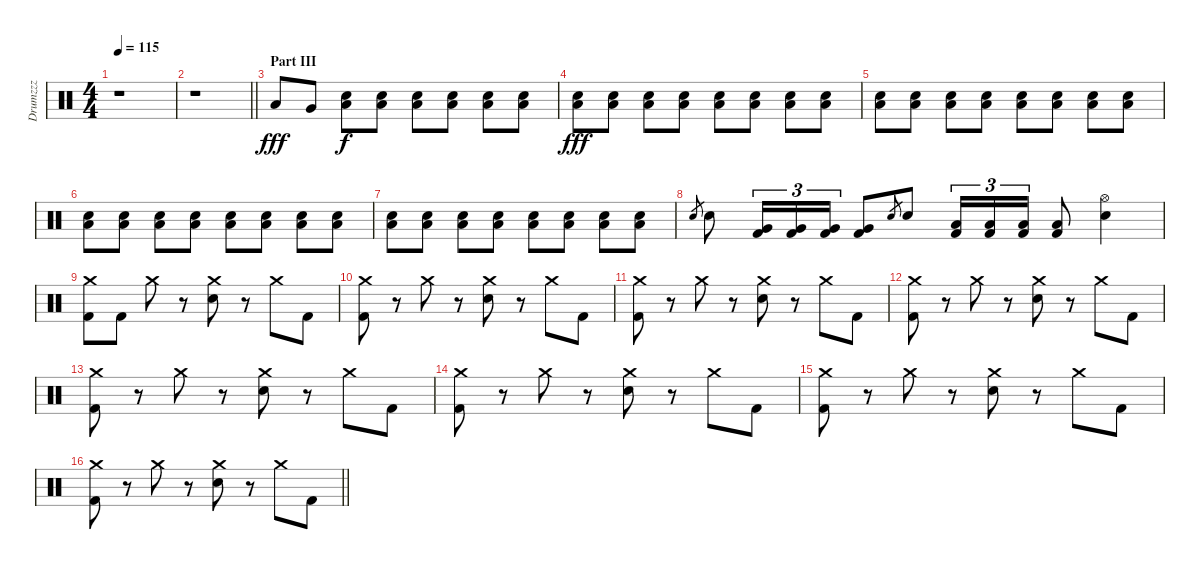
\track ("Drumzzz" "Drumzzz") {instrument percussion}
\staff {score}
\articulation defaults
\ts (4 4)
\tempo 115
\clef neutral
\ks c
r.1{dy f} |
\barLineRight lightlight
r.1 |
\section ("" "Part III")
"Low Tom (hit)".8{dy fff} "Very Low Tom (hit)".8 ("Low Floor Tom (hit)" "Electric Snare (hit)").8{dy f volume 3} ("Low Floor Tom (hit)" "Electric Snare (hit)").8{volume 13} ("Low Floor Tom (hit)" "Electric Snare (hit)").8 ("Low Floor Tom (hit)" "Electric Snare (hit)").8 ("Low Floor Tom (hit)" "Electric Snare (hit)").8 ("Low Floor Tom (hit)" "Electric Snare (hit)").8 |
("Low Floor Tom (hit)" "Electric Snare (hit)").8{dy fff} ("Low Floor Tom (hit)" "Electric Snare (hit)").8 ("Low Floor Tom (hit)" "Electric Snare (hit)").8 ("Low Floor Tom (hit)" "Electric Snare (hit)").8 ("Low Floor Tom (hit)" "Electric Snare (hit)").8 ("Low Floor Tom (hit)" "Electric Snare (hit)").8 ("Low Floor Tom (hit)" "Electric Snare (hit)").8 ("Low Floor Tom (hit)" "Electric Snare (hit)").8 |
("Low Floor Tom (hit)" "Electric Snare (hit)").8 ("Low Floor Tom (hit)" "Electric Snare (hit)").8 ("Low Floor Tom (hit)" "Electric Snare (hit)").8 ("Low Floor Tom (hit)" "Electric Snare (hit)").8 ("Low Floor Tom (hit)" "Electric Snare (hit)").8 ("Low Floor Tom (hit)" "Electric Snare (hit)").8 ("Low Floor Tom (hit)" "Electric Snare (hit)").8 ("Low Floor Tom (hit)" "Electric Snare (hit)").8 |
("Low Floor Tom (hit)" "Electric Snare (hit)").8 ("Low Floor Tom (hit)" "Electric Snare (hit)").8 ("Low Floor Tom (hit)" "Electric Snare (hit)").8 ("Low Floor Tom (hit)" "Electric Snare (hit)").8 ("Low Floor Tom (hit)" "Electric Snare (hit)").8 ("Low Floor Tom (hit)" "Electric Snare (hit)").8 ("Low Floor Tom (hit)" "Electric Snare (hit)").8 ("Low Floor Tom (hit)" "Electric Snare (hit)").8 |
("Low Floor Tom (hit)" "Electric Snare (hit)").8 ("Low Floor Tom (hit)" "Electric Snare (hit)").8 ("Low Floor Tom (hit)" "Electric Snare (hit)").8 ("Low Floor Tom (hit)" "Electric Snare (hit)").8 ("Low Floor Tom (hit)" "Electric Snare (hit)").8 ("Low Floor Tom (hit)" "Electric Snare (hit)").8 ("Low Floor Tom (hit)" "Electric Snare (hit)").8 ("Low Floor Tom (hit)" "Electric Snare (hit)").8 |
"Electric Snare (hit)".8{gr} "Electric Snare (hit)".8 ("Very Low Tom (hit)" "Kick (hit) 2").16{tu (3 2)} ("Very Low Tom (hit)" "Kick (hit) 2").16{tu (3 2)} ("Very Low Tom (hit)" "Kick (hit) 2").16{tu (3 2)} ("Very Low Tom (hit)" "Kick (hit) 2").8 "Electric Snare (hit)".8{gr} "Electric Snare (hit)".8 ("Low Floor Tom (hit)" "Kick (hit) 2").16{tu (3 2)} ("Low Floor Tom (hit)" "Kick (hit) 2").16{tu (3 2)} ("Low Floor Tom (hit)" "Kick (hit) 2").16{tu (3 2)} ("Low Floor Tom (hit)" "Kick (hit) 2").8 ("Hi-Hat (open)" "Electric Snare (hit)").4 |
("Crash medium (hit)" "Kick (hit) 2").8 "Kick (hit) 2".8 "Crash medium (hit)".8 r.8 ("Crash medium (hit)" "Electric Snare (hit)").8 r.8 "Crash medium (hit)".8 "Kick (hit) 2".8 |
("Crash medium (hit)" "Kick (hit) 2").8 r.8 "Crash medium (hit)".8 r.8 ("Crash medium (hit)" "Electric Snare (hit)").8 r.8 "Crash medium (hit)".8 "Kick (hit) 2".8 |
("Crash medium (hit)" "Kick (hit) 2").8 r.8 "Crash medium (hit)".8 r.8 ("Crash medium (hit)" "Electric Snare (hit)").8 r.8 "Crash medium (hit)".8 "Kick (hit) 2".8 |
("Crash medium (hit)" "Kick (hit) 2").8 r.8 "Crash medium (hit)".8 r.8 ("Crash medium (hit)" "Electric Snare (hit)").8 r.8 "Crash medium (hit)".8 "Kick (hit) 2".8 |
("Crash medium (hit)" "Kick (hit) 2").8 r.8 "Crash medium (hit)".8 r.8 ("Crash medium (hit)" "Electric Snare (hit)").8 r.8 "Crash medium (hit)".8 "Kick (hit) 2".8 |
("Crash medium (hit)" "Kick (hit) 2").8 r.8 "Crash medium (hit)".8 r.8 ("Crash medium (hit)" "Electric Snare (hit)").8 r.8 "Crash medium (hit)".8 "Kick (hit) 2".8 |
("Crash medium (hit)" "Kick (hit) 2").8 r.8 "Crash medium (hit)".8 r.8 ("Crash medium (hit)" "Electric Snare (hit)").8 r.8 "Crash medium (hit)".8 "Kick (hit) 2".8 |
\barLineRight lightlight
("Crash medium (hit)" "Kick (hit) 2").8 r.8 "Crash medium (hit)".8 r.8 ("Crash medium (hit)" "Electric Snare (hit)").8 r.8 "Crash medium (hit)".8 "Kick (hit) 2".8
